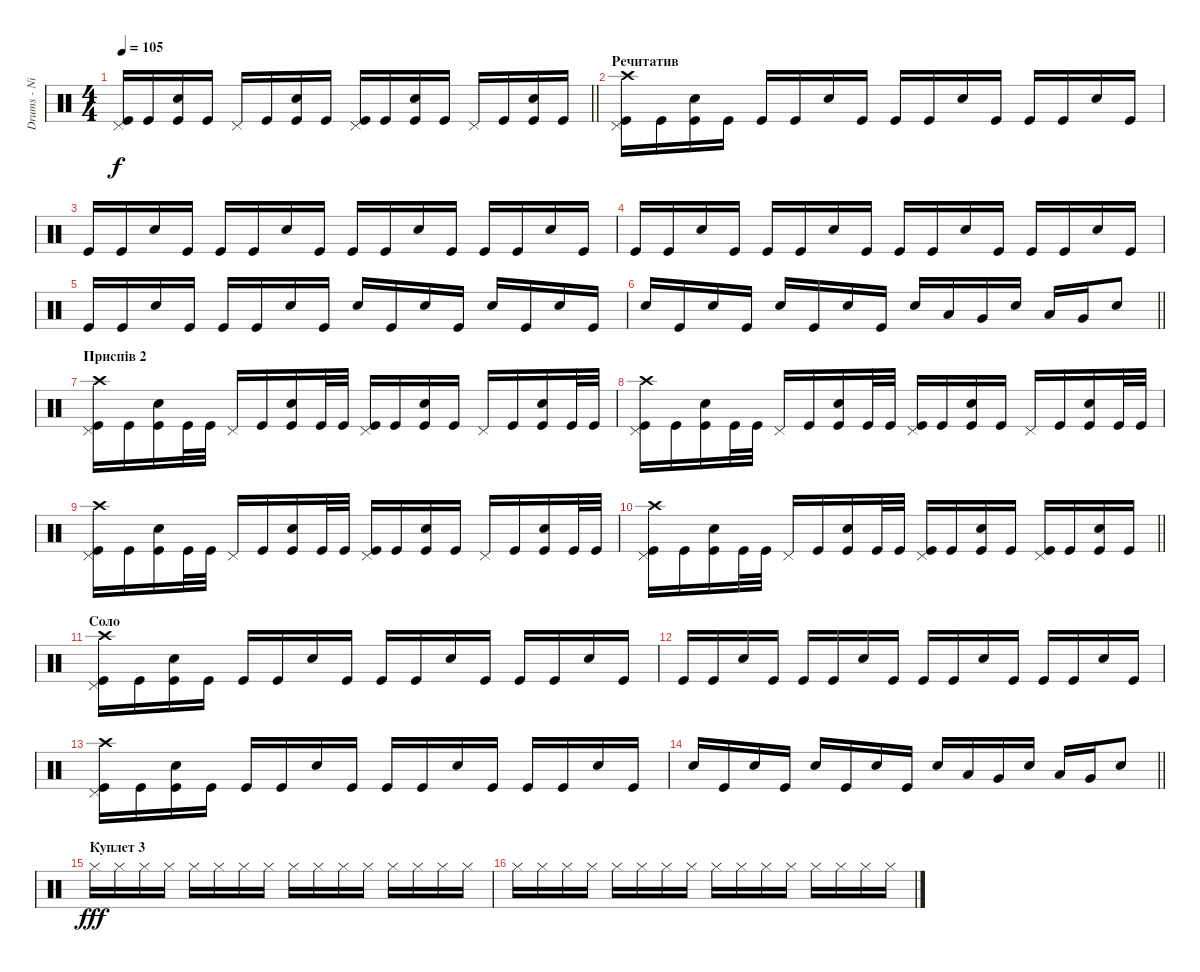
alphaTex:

\track ("Drums - NikiTon" "Drums - Ni") {instrument percussion}
\staff {score}
\articulation defaults
\ts (4 4)
\tempo 105
\clef neutral
\barLineRight lightlight
\ks c
("Kick (hit)" "Pedal Hi-Hat (hit)").16{dy f} "Kick (hit)".16 ("Kick (hit)" "Electric Snare (hit)").16 "Kick (hit)".16 "Pedal Hi-Hat (hit)".16 "Kick (hit)".16 ("Kick (hit)" "Electric Snare (hit)").16 "Kick (hit)".16 ("Kick (hit)" "Pedal Hi-Hat (hit)").16 "Kick (hit)".16 ("Kick (hit)" "Electric Snare (hit)").16 "Kick (hit)".16 "Pedal Hi-Hat (hit)".16 "Kick (hit)".16 ("Kick (hit)" "Electric Snare (hit)").16 "Kick (hit)".16 |
\section ("" "Речитатив")
("Kick (hit)" "Pedal Hi-Hat (hit)" "Crash high (hit)").16 "Kick (hit)".16 ("Kick (hit)" "Electric Snare (hit)").16 "Kick (hit)".16 "Kick (hit)".16 "Kick (hit)".16 "Electric Snare (hit)".16 "Kick (hit)".16 "Kick (hit)".16 "Kick (hit)".16 "Electric Snare (hit)".16 "Kick (hit)".16 "Kick (hit)".16 "Kick (hit)".16 "Electric Snare (hit)".16 "Kick (hit)".16 |
"Kick (hit)".16 "Kick (hit)".16 "Electric Snare (hit)".16 "Kick (hit)".16 "Kick (hit)".16 "Kick (hit)".16 "Electric Snare (hit)".16 "Kick (hit)".16 "Kick (hit)".16 "Kick (hit)".16 "Electric Snare (hit)".16 "Kick (hit)".16 "Kick (hit)".16 "Kick (hit)".16 "Electric Snare (hit)".16 "Kick (hit)".16 |
"Kick (hit)".16 "Kick (hit)".16 "Electric Snare (hit)".16 "Kick (hit)".16 "Kick (hit)".16 "Kick (hit)".16 "Electric Snare (hit)".16 "Kick (hit)".16 "Kick (hit)".16 "Kick (hit)".16 "Electric Snare (hit)".16 "Kick (hit)".16 "Kick (hit)".16 "Kick (hit)".16 "Electric Snare (hit)".16 "Kick (hit)".16 |
"Kick (hit)".16 "Kick (hit)".16 "Electric Snare (hit)".16 "Kick (hit)".16 "Kick (hit)".16 "Kick (hit)".16 "Electric Snare (hit)".16 "Kick (hit)".16 "Electric Snare (hit)".16 "Kick (hit)".16 "Electric Snare (hit)".16 "Kick (hit)".16 "Electric Snare (hit)".16 "Kick (hit)".16 "Electric Snare (hit)".16 "Kick (hit)".16 |
\barLineRight lightlight "Electric Snare (hit)".16 "Kick (hit)".16 "Electric Snare (hit)".16 "Kick (hit)".16 "Electric Snare (hit)".16 "Kick (hit)".16 "Electric Snare (hit)".16 "Kick (hit)".16 "Electric Snare (hit)".16 "Low Tom (hit)".16 "Very Low Tom (hit)".16 "Electric Snare (hit)".16 "Low Tom (hit)".16 "Very Low Tom (hit)".16 "Electric Snare (hit)".8
|
\section ("" "Приспів 2")
("Kick (hit)" "Pedal Hi-Hat (hit)" "Crash high (hit)").16 "Kick (hit)".16 ("Kick (hit)" "Electric Snare (hit)").16 "Kick (hit)".32 "Kick (hit)".32 "Pedal Hi-Hat (hit)".16 "Kick (hit)".16 ("Kick (hit)" "Electric Snare (hit)").16 "Kick (hit)".32 "Kick (hit)".32 ("Kick (hit)" "Pedal Hi-Hat (hit)").16 "Kick (hit)".16 ("Kick (hit)" "Electric Snare (hit)").16 "Kick (hit)".16 "Pedal Hi-Hat (hit)".16 "Kick (hit)".16 ("Kick (hit)" "Electric Snare (hit)").16 "Kick (hit)".32 "Kick (hit)".32 |
("Kick (hit)" "Pedal Hi-Hat (hit)" "Crash high (hit)").16 "Kick (hit)".16 ("Kick (hit)" "Electric Snare (hit)").16 "Kick (hit)".32 "Kick (hit)".32 "Pedal Hi-Hat (hit)".16 "Kick (hit)".16 ("Kick (hit)" "Electric Snare (hit)").16 "Kick (hit)".32 "Kick (hit)".32 ("Kick (hit)" "Pedal Hi-Hat (hit)").16 "Kick (hit)".16 ("Kick (hit)" "Electric Snare (hit)").16 "Kick (hit)".16 "Pedal Hi-Hat (hit)".16 "Kick (hit)".16 ("Kick (hit)" "Electric Snare (hit)").16 "Kick (hit)".32 "Kick (hit)".32 |
("Kick (hit)" "Pedal Hi-Hat (hit)" "Crash high (hit)").16 "Kick (hit)".16 ("Kick (hit)" "Electric Snare (hit)").16 "Kick (hit)".32 "Kick (hit)".32 "Pedal Hi-Hat (hit)".16 "Kick (hit)".16 ("Kick (hit)" "Electric Snare (hit)").16 "Kick (hit)".32 "Kick (hit)".32 ("Kick (hit)" "Pedal Hi-Hat (hit)").16 "Kick (hit)".16 ("Kick (hit)" "Electric Snare (hit)").16 "Kick (hit)".16 "Pedal Hi-Hat (hit)".16 "Kick (hit)".16 ("Kick (hit)" "Electric Snare (hit)").16 "Kick (hit)".32 "Kick (hit)".32 |
\barLineRight lightlight
("Kick (hit)" "Pedal Hi-Hat (hit)" "Crash high (hit)").16 "Kick (hit)".16 ("Kick (hit)" "Electric Snare (hit)").16 "Kick (hit)".32 "Kick (hit)".32 "Pedal Hi-Hat (hit)".16 "Kick (hit)".16 ("Kick (hit)" "Electric Snare (hit)").16 "Kick (hit)".32 "Kick (hit)".32 ("Kick (hit)" "Pedal Hi-Hat (hit)").16 "Kick (hit)".16 ("Kick (hit)" "Electric Snare (hit)").16 "Kick (hit)".16 ("Kick (hit)" "Pedal Hi-Hat (hit)").16 "Kick (hit)".16 ("Kick (hit)" "Electric Snare (hit)").16 "Kick (hit)".16 |
\section ("" "Соло")
("Kick (hit)" "Pedal Hi-Hat (hit)" "Crash high (hit)").16 "Kick (hit)".16 ("Kick (hit)" "Electric Snare (hit)").16 "Kick (hit)".16 "Kick (hit)".16 "Kick (hit)".16 "Electric Snare (hit)".16 "Kick (hit)".16 "Kick (hit)".16 "Kick (hit)".16 "Electric Snare (hit)".16 "Kick (hit)".16 "Kick (hit)".16 "Kick (hit)".16 "Electric Snare (hit)".16 "Kick (hit)".16 |
"Kick (hit)".16 "Kick (hit)".16 "Electric Snare (hit)".16 "Kick (hit)".16 "Kick (hit)".16 "Kick (hit)".16 "Electric Snare (hit)".16 "Kick (hit)".16 "Kick (hit)".16 "Kick (hit)".16 "Electric Snare (hit)".16 "Kick (hit)".16 "Kick (hit)".16 "Kick (hit)".16 "Electric Snare (hit)".16 "Kick (hit)".16 |
("Kick (hit)" "Pedal Hi-Hat (hit)" "Crash high (hit)").16 "Kick (hit)".16 ("Kick (hit)" "Electric Snare (hit)").16 "Kick (hit)".16 "Kick (hit)".16 "Kick (hit)".16 "Electric Snare (hit)".16 "Kick (hit)".16 "Kick (hit)".16 "Kick (hit)".16 "Electric Snare (hit)".16 "Kick (hit)".16 "Kick (hit)".16 "Kick (hit)".16 "Electric Snare (hit)".16 "Kick (hit)".16 |
\barLineRight lightlight "Electric Snare (hit)".16 "Kick (hit)".16 "Electric Snare (hit)".16 "Kick (hit)".16 "Electric Snare (hit)".16 "Kick (hit)".16 "Electric Snare (hit)".16 "Kick (hit)".16 "Electric Snare (hit)".16 "Low Tom (hit)".16 "Very Low Tom (hit)".16 "Electric Snare (hit)".16 "Low Tom (hit)".16 "Very Low Tom (hit)".16 "Electric Snare (hit)".8
|
\section ("" "Куплет 3")
"Hi-Hat (closed)".16{dy fff} "Hi-Hat (closed)".16 "Hi-Hat (closed)".16 "Hi-Hat (closed)".16 "Hi-Hat (closed)".16 "Hi-Hat (closed)".16 "Hi-Hat (closed)".16 "Hi-Hat (closed)".16 "Hi-Hat (closed)".16 "Hi-Hat (closed)".16 "Hi-Hat (closed)".16 "Hi-Hat (closed)".16 "Hi-Hat (closed)".16 "Hi-Hat (closed)".16 "Hi-Hat (closed)".16 "Hi-Hat (closed)".16 |
"Hi-Hat (closed)".16 "Hi-Hat (closed)".16 "Hi-Hat (closed)".16 "Hi-Hat (closed)".16 "Hi-Hat (closed)".16 "Hi-Hat (closed)".16 "Hi-Hat (closed)".16 "Hi-Hat (closed)".16 "Hi-Hat (closed)".16 "Hi-Hat (closed)".16 "Hi-Hat (closed)".16 "Hi-Hat (closed)".16 "Hi-Hat (closed)".16 "Hi-Hat (closed)".16 "Hi-Hat (closed)".16 "Hi-Hat (closed)".16
